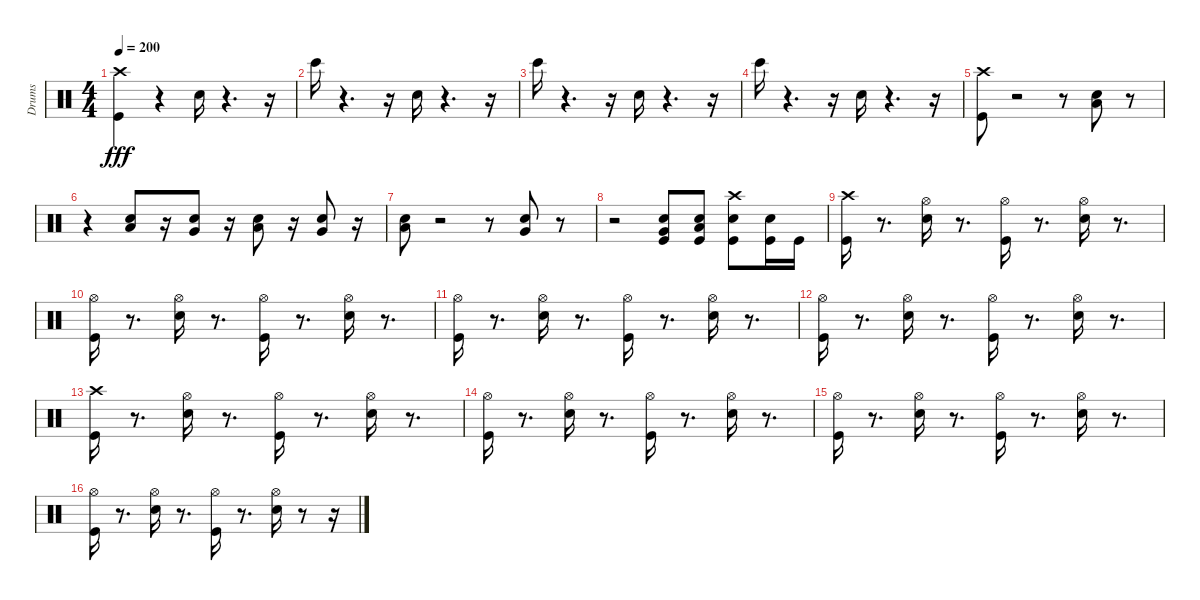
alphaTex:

\track ("Drums" "Drums") {instrument percussion}
\staff {score}
\articulation defaults
\ts (4 4)
\tempo 200
\clef neutral
\ks c
("Crash high (hit)" "Kick (hit)").4{dy fff} r.4 "Snare (hit) 2".16 r.4{d} r.16 |
"Bongo High (hit)".16 r.4{d} r.16 "Snare (hit) 2".16 r.4{d} r.16 |
"Bongo High (hit)".16 r.4{d} r.16 "Snare (hit) 2".16 r.4{d} r.16 |
"Bongo High (hit)".16 r.4{d} r.16 "Snare (hit) 2".16 r.4{d} r.16 |
("Kick (hit)" "Crash high (hit)").8 r.2 r.8 ("Snare (hit) 2" "Low Tom (hit)").8 r.8 |
r.4 ("Snare (hit) 2" "Low Tom (hit)").8 r.16 ("Very Low Tom (hit)" "Snare (hit) 2").8 r.16 ("Snare (hit) 2" "Low Floor Tom (hit)").8 r.16 ("Very Low Tom (hit)" "Snare (hit) 2").8 r.16 |
("Low Tom (hit)" "Snare (hit) 2").8 r.2 r.8 ("Snare (hit) 2" "Very Low Tom (hit)").8 r.8 |
r.2 ("Very Low Tom (hit)" "Snare (hit) 2" "Kick (hit)").8 ("Snare (hit) 2" "Low Floor Tom (hit)" "Kick (hit)").8 ("Kick (hit)" "Crash high (hit)" "Snare (hit) 2").8 ("Kick (hit)" "Snare (hit) 2").16 "Kick (hit)".16 |
("Kick (hit)" "Crash high (hit)").16 r.8{d} ("Hi-Hat (open)" "Snare (hit) 2").16 r.8{d} ("Hi-Hat (open)" "Kick (hit)").16 r.8{d} ("Hi-Hat (open)" "Snare (hit) 2").16 r.8{d} |
("Kick (hit)" "Hi-Hat (open)").16 r.8{d} ("Snare (hit) 2" "Hi-Hat (open)").16 r.8{d} ("Kick (hit)" "Hi-Hat (open)").16 r.8{d} ("Hi-Hat (open)" "Snare (hit) 2").16 r.8{d} |
("Kick (hit)" "Hi-Hat (open)").16 r.8{d} ("Hi-Hat (open)" "Snare (hit) 2").16 r.8{d} ("Hi-Hat (open)" "Kick (hit)").16 r.8{d} ("Snare (hit) 2" "Hi-Hat (open)").16 r.8{d} |
("Hi-Hat (open)" "Kick (hit)").16 r.8{d} ("Snare (hit) 2" "Hi-Hat (open)").16 r.8{d} ("Hi-Hat (open)" "Kick (hit)").16 r.8{d} ("Hi-Hat (open)" "Snare (hit) 2").16 r.8{d} |
("Kick (hit)" "Crash high (hit)").16 r.8{d} ("Hi-Hat (open)" "Snare (hit) 2").16 r.8{d} ("Kick (hit)" "Hi-Hat (open)").16 r.8{d} ("Hi-Hat (open)" "Snare (hit) 2").16 r.8{d} |
("Kick (hit)" "Hi-Hat (open)").16 r.8{d} ("Hi-Hat (open)" "Snare (hit) 2").16 r.8{d} ("Hi-Hat (open)" "Kick (hit)").16 r.8{d} ("Snare (hit) 2" "Hi-Hat (open)").16 r.8{d} |
("Hi-Hat (open)" "Kick (hit)").16 r.8{d} ("Snare (hit) 2" "Hi-Hat (open)").16 r.8{d} ("Hi-Hat (open)" "Kick (hit)").16 r.8{d} ("Snare (hit) 2" "Hi-Hat (open)").16 r.8{d} |
("Hi-Hat (open)" "Kick (hit)").16 r.8{d} ("Hi-Hat (open)" "Snare (hit) 2").16 r.8{d} ("Hi-Hat (open)" "Kick (hit)").16 r.8{d} ("Hi-Hat (open)" "Snare (hit) 2").16 r.8 r.16
